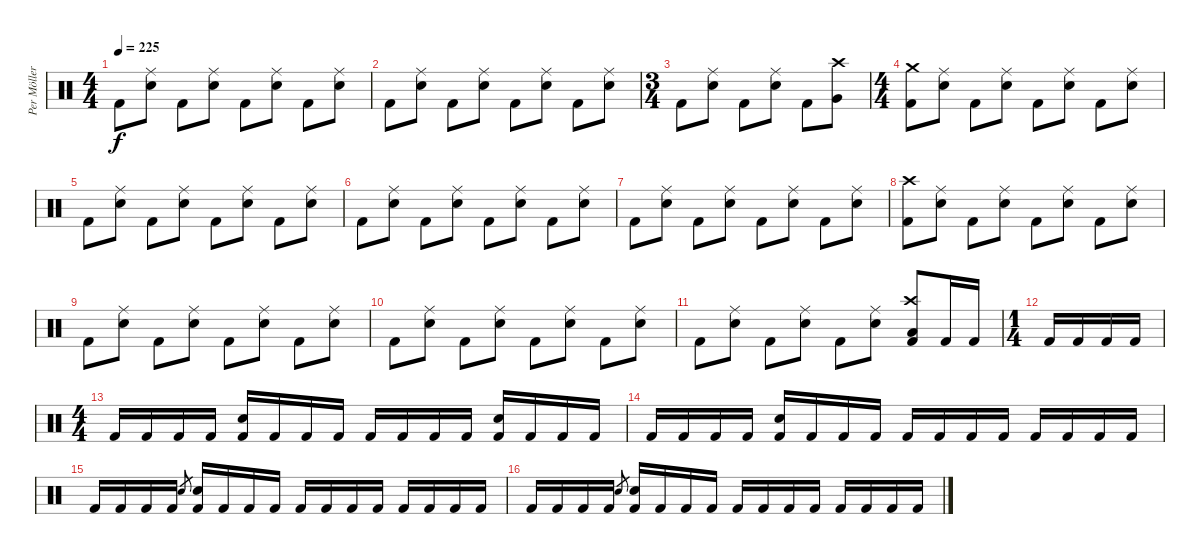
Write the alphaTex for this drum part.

\track ("Per Möller Jensen" "Per Möller") {instrument percussion}
\staff {score}
\articulation defaults
\ts (4 4)
\tempo 225
\clef neutral
\ks c "Kick (hit) 2".8{dy f}
("Ride (middle)" "Snare (hit) 2").8 "Kick (hit) 2".8 ("Ride (middle)" "Snare (hit) 2").8 "Kick (hit) 2".8 ("Ride (middle)" "Snare (hit) 2").8 "Kick (hit) 2".8 ("Ride (middle)" "Snare (hit) 2").8 |
"Kick (hit) 2".8 ("Ride (middle)" "Snare (hit) 2").8 "Kick (hit) 2".8 ("Ride (middle)" "Snare (hit) 2").8 "Kick (hit) 2".8 ("Ride (middle)" "Snare (hit) 2").8 "Kick (hit) 2".8 ("Ride (middle)" "Snare (hit) 2").8 |
\ts (3 4)
"Kick (hit) 2".8 ("Ride (middle)" "Snare (hit) 2").8 "Kick (hit) 2".8 ("Ride (middle)" "Snare (hit) 2").8 "Kick (hit) 2".8 ("Crash high (hit)" "Very Low Tom (hit)").8 |
\ts (4 4)
("Crash medium (hit)" "Kick (hit) 2").8 ("Ride (middle)" "Snare (hit) 2").8 "Kick (hit) 2".8 ("Ride (middle)" "Snare (hit) 2").8 "Kick (hit) 2".8 ("Ride (middle)" "Snare (hit) 2").8 "Kick (hit) 2".8 ("Ride (middle)" "Snare (hit) 2").8 |
"Kick (hit) 2".8 ("Ride (middle)" "Snare (hit) 2").8 "Kick (hit) 2".8 ("Ride (middle)" "Snare (hit) 2").8 "Kick (hit) 2".8 ("Ride (middle)" "Snare (hit) 2").8 "Kick (hit) 2".8 ("Ride (middle)" "Snare (hit) 2").8 |
"Kick (hit) 2".8 ("Ride (middle)" "Snare (hit) 2").8 "Kick (hit) 2".8 ("Ride (middle)" "Snare (hit) 2").8 "Kick (hit) 2".8 ("Ride (middle)" "Snare (hit) 2").8 "Kick (hit) 2".8 ("Ride (middle)" "Snare (hit) 2").8 |
"Kick (hit) 2".8 ("Ride (middle)" "Snare (hit) 2").8 "Kick (hit) 2".8 ("Ride (middle)" "Snare (hit) 2").8 "Kick (hit) 2".8 ("Ride (middle)" "Snare (hit) 2").8 "Kick (hit) 2".8 ("Ride (middle)" "Snare (hit) 2").8 |
("Crash high (hit)" "Kick (hit) 2").8 ("Ride (middle)" "Snare (hit) 2").8 "Kick (hit) 2".8 ("Ride (middle)" "Snare (hit) 2").8 "Kick (hit) 2".8 ("Ride (middle)" "Snare (hit) 2").8 "Kick (hit) 2".8 ("Ride (middle)" "Snare (hit) 2").8 |
"Kick (hit) 2".8 ("Ride (middle)" "Snare (hit) 2").8 "Kick (hit) 2".8 ("Ride (middle)" "Snare (hit) 2").8 "Kick (hit) 2".8 ("Ride (middle)" "Snare (hit) 2").8 "Kick (hit) 2".8 ("Ride (middle)" "Snare (hit) 2").8 |
"Kick (hit) 2".8 ("Ride (middle)" "Snare (hit) 2").8 "Kick (hit) 2".8 ("Ride (middle)" "Snare (hit) 2").8 "Kick (hit) 2".8 ("Ride (middle)" "Snare (hit) 2").8 "Kick (hit) 2".8 ("Ride (middle)" "Snare (hit) 2").8 |
"Kick (hit) 2".8 ("Ride (middle)" "Snare (hit) 2").8 "Kick (hit) 2".8 ("Ride (middle)" "Snare (hit) 2").8 "Kick (hit) 2".8 ("Ride (middle)" "Snare (hit) 2").8 ("Crash high (hit)" "Low Floor Tom (hit)" "Kick (hit) 2").8 "Kick (hit) 2".16 "Kick (hit) 2".16 |
\ts (1 4)
"Kick (hit) 2".16 "Kick (hit) 2".16 "Kick (hit) 2".16 "Kick (hit) 2".16 |
\ts (4 4)
"Kick (hit) 2".16 "Kick (hit) 2".16 "Kick (hit) 2".16 "Kick (hit) 2".16 ("Snare (hit) 2" "Kick (hit) 2").16 "Kick (hit) 2".16 "Kick (hit) 2".16 "Kick (hit) 2".16 "Kick (hit) 2".16 "Kick (hit) 2".16 "Kick (hit) 2".16 "Kick (hit) 2".16 ("Snare (hit) 2" "Kick (hit) 2").16 "Kick (hit) 2".16 "Kick (hit) 2".16 "Kick (hit) 2".16 |
"Kick (hit) 2".16 "Kick (hit) 2".16 "Kick (hit) 2".16 "Kick (hit) 2".16 ("Snare (hit) 2" "Kick (hit) 2").16 "Kick (hit) 2".16 "Kick (hit) 2".16 "Kick (hit) 2".16 "Kick (hit) 2".16 "Kick (hit) 2".16 "Kick (hit) 2".16 "Kick (hit) 2".16 "Kick (hit) 2".16 "Kick (hit) 2".16 "Kick (hit) 2".16 "Kick (hit) 2".16 |
"Kick (hit) 2".16 "Kick (hit) 2".16 "Kick (hit) 2".16 "Kick (hit) 2".16 "Snare (hit) 2".8{gr} ("Snare (hit) 2" "Kick (hit) 2").16 "Kick (hit) 2".16 "Kick (hit) 2".16 "Kick (hit) 2".16 "Kick (hit) 2".16 "Kick (hit) 2".16 "Kick (hit) 2".16 "Kick (hit) 2".16 "Kick (hit) 2".16 "Kick (hit) 2".16 "Kick (hit) 2".16 "Kick (hit) 2".16 |
"Kick (hit) 2".16 "Kick (hit) 2".16 "Kick (hit) 2".16 "Kick (hit) 2".16 "Snare (hit) 2".8{gr} ("Snare (hit) 2" "Kick (hit) 2").16 "Kick (hit) 2".16 "Kick (hit) 2".16 "Kick (hit) 2".16 "Kick (hit) 2".16 "Kick (hit) 2".16 "Kick (hit) 2".16 "Kick (hit) 2".16 "Kick (hit) 2".16 "Kick (hit) 2".16 "Kick (hit) 2".16 "Kick (hit) 2".16
